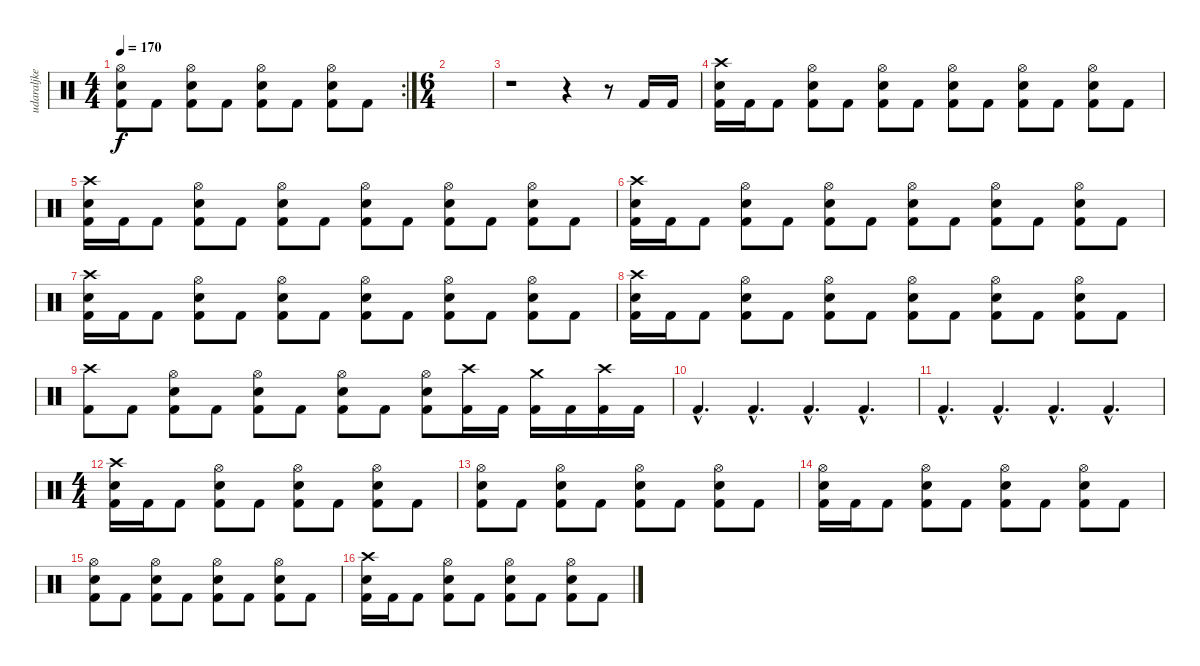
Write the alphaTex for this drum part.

\track ("udaraljke" "udaraljke") {instrument percussion}
\staff {score}
\articulation defaults
\rc 2
\ts (4 4)
\tempo 170
\clef neutral
\ks c
("Hi-Hat (open)" "Snare (hit) 2" "Kick (hit) 2").8{dy f} "Kick (hit) 2".8 ("Hi-Hat (open)" "Snare (hit) 2" "Kick (hit) 2").8 "Kick (hit) 2".8 ("Hi-Hat (open)" "Snare (hit) 2" "Kick (hit) 2").8 "Kick (hit) 2".8 ("Hi-Hat (open)" "Snare (hit) 2" "Kick (hit) 2").8 "Kick (hit) 2".8 |
\ts (6 4)
|
r.1 r.4 r.8 "Kick (hit) 2".16 "Kick (hit) 2".16 |
("Crash high (hit)" "Snare (hit) 2" "Kick (hit) 2").16 "Kick (hit) 2".16 "Kick (hit) 2".8 ("Hi-Hat (open)" "Snare (hit) 2" "Kick (hit) 2").8 "Kick (hit) 2".8 ("Hi-Hat (open)" "Snare (hit) 2" "Kick (hit) 2").8 "Kick (hit) 2".8 ("Hi-Hat (open)" "Snare (hit) 2" "Kick (hit) 2").8 "Kick (hit) 2".8 ("Hi-Hat (open)" "Snare (hit) 2" "Kick (hit) 2").8 "Kick (hit) 2".8 ("Hi-Hat (open)" "Snare (hit) 2" "Kick (hit) 2").8 "Kick (hit) 2".8 |
("Crash high (hit)" "Snare (hit) 2" "Kick (hit) 2").16 "Kick (hit) 2".16 "Kick (hit) 2".8 ("Hi-Hat (open)" "Snare (hit) 2" "Kick (hit) 2").8 "Kick (hit) 2".8 ("Hi-Hat (open)" "Snare (hit) 2" "Kick (hit) 2").8 "Kick (hit) 2".8 ("Hi-Hat (open)" "Snare (hit) 2" "Kick (hit) 2").8 "Kick (hit) 2".8 ("Hi-Hat (open)" "Snare (hit) 2" "Kick (hit) 2").8 "Kick (hit) 2".8 ("Hi-Hat (open)" "Snare (hit) 2" "Kick (hit) 2").8 "Kick (hit) 2".8 |
("Crash high (hit)" "Snare (hit) 2" "Kick (hit) 2").16 "Kick (hit) 2".16 "Kick (hit) 2".8 ("Hi-Hat (open)" "Snare (hit) 2" "Kick (hit) 2").8 "Kick (hit) 2".8 ("Hi-Hat (open)" "Snare (hit) 2" "Kick (hit) 2").8 "Kick (hit) 2".8 ("Hi-Hat (open)" "Snare (hit) 2" "Kick (hit) 2").8 "Kick (hit) 2".8 ("Hi-Hat (open)" "Snare (hit) 2" "Kick (hit) 2").8 "Kick (hit) 2".8 ("Hi-Hat (open)" "Snare (hit) 2" "Kick (hit) 2").8 "Kick (hit) 2".8 |
("Crash high (hit)" "Snare (hit) 2" "Kick (hit) 2").16 "Kick (hit) 2".16 "Kick (hit) 2".8 ("Hi-Hat (open)" "Snare (hit) 2" "Kick (hit) 2").8 "Kick (hit) 2".8 ("Hi-Hat (open)" "Snare (hit) 2" "Kick (hit) 2").8 "Kick (hit) 2".8 ("Hi-Hat (open)" "Snare (hit) 2" "Kick (hit) 2").8 "Kick (hit) 2".8 ("Hi-Hat (open)" "Snare (hit) 2" "Kick (hit) 2").8 "Kick (hit) 2".8 ("Hi-Hat (open)" "Snare (hit) 2" "Kick (hit) 2").8 "Kick (hit) 2".8 |
("Crash high (hit)" "Snare (hit) 2" "Kick (hit) 2").16 "Kick (hit) 2".16 "Kick (hit) 2".8 ("Hi-Hat (open)" "Snare (hit) 2" "Kick (hit) 2").8 "Kick (hit) 2".8 ("Hi-Hat (open)" "Snare (hit) 2" "Kick (hit) 2").8 "Kick (hit) 2".8 ("Hi-Hat (open)" "Snare (hit) 2" "Kick (hit) 2").8 "Kick (hit) 2".8 ("Hi-Hat (open)" "Snare (hit) 2" "Kick (hit) 2").8 "Kick (hit) 2".8 ("Hi-Hat (open)" "Snare (hit) 2" "Kick (hit) 2").8 "Kick (hit) 2".8 |
("Crash high (hit)" "Kick (hit) 2").8 "Kick (hit) 2".8 ("Hi-Hat (open)" "Snare (hit) 2" "Kick (hit) 2").8 "Kick (hit) 2".8 ("Hi-Hat (open)" "Snare (hit) 2" "Kick (hit) 2").8 "Kick (hit) 2".8 ("Hi-Hat (open)" "Snare (hit) 2" "Kick (hit) 2").8 "Kick (hit) 2".8 ("Hi-Hat (open)" "Snare (hit) 2" "Kick (hit) 2").8 ("Crash high (hit)" "Kick (hit) 2").16 "Kick (hit) 2".16 ("Crash medium (hit)" "Kick (hit) 2").16 "Kick (hit) 2".16 ("Crash high (hit)" "Kick (hit) 2").16 "Kick (hit) 2".16 |
"Kick (hit) 2"{hac}.4{d} "Kick (hit) 2"{hac}.4{d} "Kick (hit) 2"{hac}.4{d} "Kick (hit) 2"{hac}.4{d} |
"Kick (hit) 2"{hac}.4{d} "Kick (hit) 2"{hac}.4{d} "Kick (hit) 2"{hac}.4{d} "Kick (hit) 2"{hac}.4{d} |
\ts (4 4)
("Crash high (hit)" "Snare (hit) 2" "Kick (hit) 2").16 "Kick (hit) 2".16 "Kick (hit) 2".8 ("Hi-Hat (open)" "Snare (hit) 2" "Kick (hit) 2").8 "Kick (hit) 2".8 ("Hi-Hat (open)" "Snare (hit) 2" "Kick (hit) 2").8 "Kick (hit) 2".8 ("Hi-Hat (open)" "Snare (hit) 2" "Kick (hit) 2").8 "Kick (hit) 2".8 |
("Hi-Hat (open)" "Snare (hit) 2" "Kick (hit) 2").8 "Kick (hit) 2".8 ("Hi-Hat (open)" "Snare (hit) 2" "Kick (hit) 2").8 "Kick (hit) 2".8 ("Hi-Hat (open)" "Snare (hit) 2" "Kick (hit) 2").8 "Kick (hit) 2".8 ("Hi-Hat (open)" "Snare (hit) 2" "Kick (hit) 2").8 "Kick (hit) 2".8 |
("Hi-Hat (open)" "Snare (hit) 2" "Kick (hit) 2").16 "Kick (hit) 2".16 "Kick (hit) 2".8 ("Hi-Hat (open)" "Snare (hit) 2" "Kick (hit) 2").8 "Kick (hit) 2".8 ("Hi-Hat (open)" "Snare (hit) 2" "Kick (hit) 2").8 "Kick (hit) 2".8 ("Hi-Hat (open)" "Snare (hit) 2" "Kick (hit) 2").8 "Kick (hit) 2".8 |
("Hi-Hat (open)" "Snare (hit) 2" "Kick (hit) 2").8 "Kick (hit) 2".8 ("Hi-Hat (open)" "Snare (hit) 2" "Kick (hit) 2").8 "Kick (hit) 2".8 ("Hi-Hat (open)" "Snare (hit) 2" "Kick (hit) 2").8 "Kick (hit) 2".8 ("Hi-Hat (open)" "Snare (hit) 2" "Kick (hit) 2").8 "Kick (hit) 2".8 |
("Crash high (hit)" "Snare (hit) 2" "Kick (hit) 2").16 "Kick (hit) 2".16 "Kick (hit) 2".8 ("Hi-Hat (open)" "Snare (hit) 2" "Kick (hit) 2").8 "Kick (hit) 2".8 ("Hi-Hat (open)" "Snare (hit) 2" "Kick (hit) 2").8 "Kick (hit) 2".8 ("Hi-Hat (open)" "Snare (hit) 2" "Kick (hit) 2").8 "Kick (hit) 2".8
